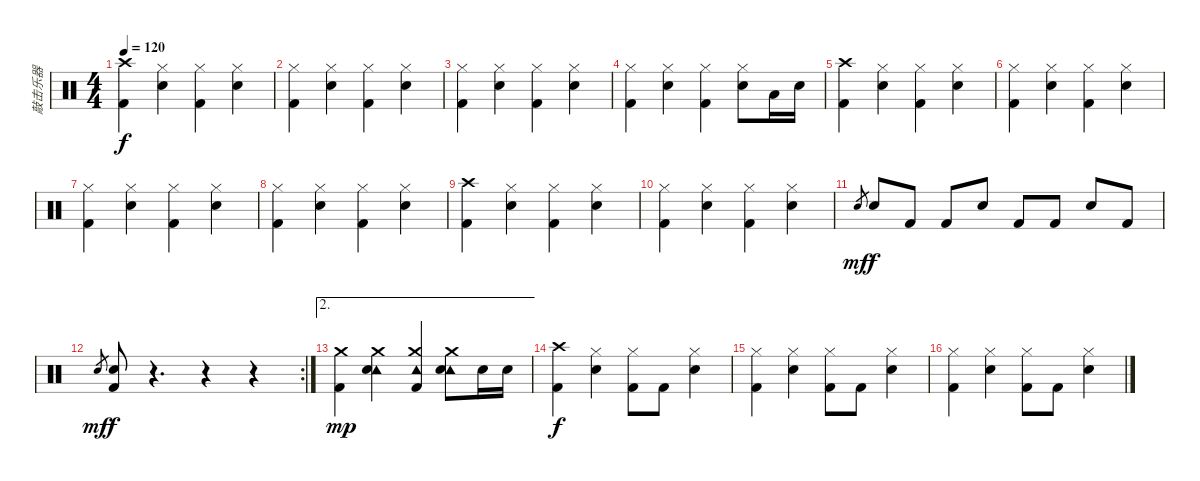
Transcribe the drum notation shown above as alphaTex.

\track ("敲击乐器" "敲击乐器") {instrument percussion}
\staff {score}
\articulation defaults
\ts (4 4)
\tempo 120
\clef neutral
\ks c
("Crash high (hit)" "Kick (hit) 2").4{dy f} ("Hi-Hat (closed)" "Electric Snare (hit)").4 ("Hi-Hat (closed)" "Kick (hit) 2").4 ("Hi-Hat (closed)" "Electric Snare (hit)").4 |
("Hi-Hat (closed)" "Kick (hit) 2").4 ("Hi-Hat (closed)" "Electric Snare (hit)").4 ("Hi-Hat (closed)" "Kick (hit) 2").4 ("Hi-Hat (closed)" "Electric Snare (hit)").4 |
("Hi-Hat (closed)" "Kick (hit) 2").4 ("Hi-Hat (closed)" "Electric Snare (hit)").4 ("Hi-Hat (closed)" "Kick (hit) 2").4 ("Hi-Hat (closed)" "Electric Snare (hit)").4 |
("Hi-Hat (closed)" "Kick (hit) 2").4 ("Hi-Hat (closed)" "Electric Snare (hit)").4 ("Hi-Hat (closed)" "Kick (hit) 2").4 ("Hi-Hat (closed)" "Electric Snare (hit)").8 "Low Tom (hit)".16 "Electric Snare (hit)".16 |
("Crash high (hit)" "Kick (hit) 2").4 ("Hi-Hat (closed)" "Electric Snare (hit)").4 ("Hi-Hat (closed)" "Kick (hit) 2").4 ("Hi-Hat (closed)" "Electric Snare (hit)").4 |
("Hi-Hat (closed)" "Kick (hit) 2").4 ("Hi-Hat (closed)" "Electric Snare (hit)").4 ("Hi-Hat (closed)" "Kick (hit) 2").4 ("Hi-Hat (closed)" "Electric Snare (hit)").4 |
("Hi-Hat (closed)" "Kick (hit) 2").4 ("Hi-Hat (closed)" "Electric Snare (hit)").4 ("Hi-Hat (closed)" "Kick (hit) 2").4 ("Hi-Hat (closed)" "Electric Snare (hit)").4 |
("Hi-Hat (closed)" "Kick (hit) 2").4 ("Hi-Hat (closed)" "Electric Snare (hit)").4 ("Hi-Hat (closed)" "Kick (hit) 2").4 ("Hi-Hat (closed)" "Electric Snare (hit)").4 |
("Crash high (hit)" "Kick (hit) 2").4 ("Hi-Hat (closed)" "Electric Snare (hit)").4 ("Hi-Hat (closed)" "Kick (hit) 2").4 ("Hi-Hat (closed)" "Electric Snare (hit)").4 |
("Hi-Hat (closed)" "Kick (hit) 2").4 ("Hi-Hat (closed)" "Electric Snare (hit)").4 ("Hi-Hat (closed)" "Kick (hit) 2").4 ("Hi-Hat (closed)" "Electric Snare (hit)").4 |
"Electric Snare (hit)".8{gr dy mf} "Electric Snare (hit)".8{dy f} "Kick (hit) 2".8 "Kick (hit) 2".8 "Electric Snare (hit)".8 "Kick (hit) 2".8 "Kick (hit) 2".8 "Electric Snare (hit)".8 "Kick (hit) 2".8 |
\rc 2 "Electric Snare (hit)".8{gr dy mf}
("Electric Snare (hit)" "Kick (hit) 2").8{dy f} r.4{d} r.4 r.4 |
\ae 2
("Crash medium (hit)" "Kick (hit) 2").4{dy mp} ("Tambourine (hit)" "Crash medium (hit)" "Electric Snare (hit)").4 ("Tambourine (hit)" "Crash medium (hit)" "Kick (hit) 2").4 ("Tambourine (hit)" "Crash medium (hit)" "Electric Snare (hit)").8 "Electric Snare (hit)".16 "Electric Snare (hit)".16 |
("Crash high (hit)" "Kick (hit) 2").4{dy f} ("Hi-Hat (closed)" "Electric Snare (hit)").4 ("Hi-Hat (closed)" "Kick (hit) 2").8 "Kick (hit) 2".8 ("Hi-Hat (closed)" "Electric Snare (hit)").4 |
("Hi-Hat (closed)" "Kick (hit) 2").4 ("Hi-Hat (closed)" "Electric Snare (hit)").4 ("Hi-Hat (closed)" "Kick (hit) 2").8 "Kick (hit) 2".8 ("Hi-Hat (closed)" "Electric Snare (hit)").4 |
("Hi-Hat (closed)" "Kick (hit) 2").4 ("Hi-Hat (closed)" "Electric Snare (hit)").4 ("Hi-Hat (closed)" "Kick (hit) 2").8 "Kick (hit) 2".8 ("Hi-Hat (closed)" "Electric Snare (hit)").4
